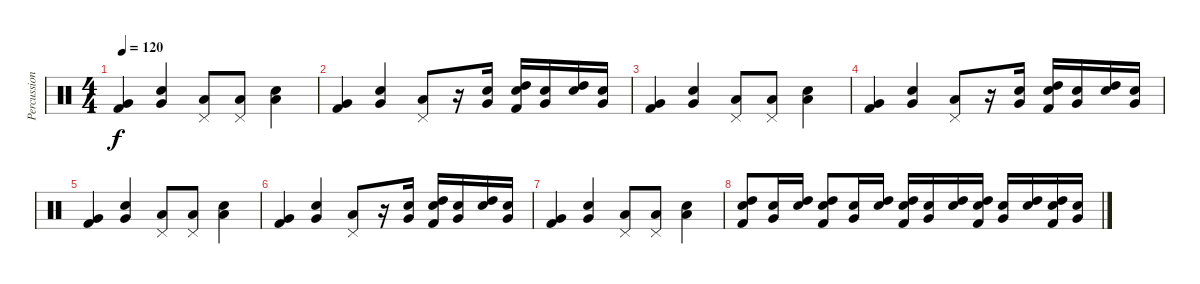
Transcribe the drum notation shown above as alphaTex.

\track ("Percussion" "Percussion") {instrument percussion}
\staff {score}
\articulation defaults
\ts (4 4)
\tempo 120
\clef neutral
\ks c
("Very Low Tom (hit)" "Kick (hit) 2").4{dy f} ("Very Low Tom (hit)" "Snare (hit) 2").4 ("Pedal Hi-Hat (hit)" "Low Tom (hit)").8 ("Pedal Hi-Hat (hit)" "Low Tom (hit)").8 ("Low Tom (hit)" "Snare (hit) 2").4 |
("Very Low Tom (hit)" "Kick (hit) 2").4 ("Very Low Tom (hit)" "Snare (hit) 2").4 ("Pedal Hi-Hat (hit)" "Low Tom (hit)").8 r.16 ("Very Low Tom (hit)" "Snare (hit) 2").16 ("High Tom (hit)" "Snare (hit) 2" "Kick (hit) 2").16 ("Very Low Tom (hit)" "Snare (hit) 2").16 ("High Tom (hit)" "Snare (hit) 2").16 ("Very Low Tom (hit)" "Snare (hit) 2").16 |
("Very Low Tom (hit)" "Kick (hit) 2").4 ("Very Low Tom (hit)" "Snare (hit) 2").4 ("Pedal Hi-Hat (hit)" "Low Tom (hit)").8 ("Pedal Hi-Hat (hit)" "Low Tom (hit)").8 ("Low Tom (hit)" "Snare (hit) 2").4 |
("Very Low Tom (hit)" "Kick (hit) 2").4 ("Very Low Tom (hit)" "Snare (hit) 2").4 ("Pedal Hi-Hat (hit)" "Low Tom (hit)").8 r.16 ("Very Low Tom (hit)" "Snare (hit) 2").16 ("High Tom (hit)" "Snare (hit) 2" "Kick (hit) 2").16 ("Very Low Tom (hit)" "Snare (hit) 2").16 ("High Tom (hit)" "Snare (hit) 2").16 ("Very Low Tom (hit)" "Snare (hit) 2").16 |
("Very Low Tom (hit)" "Kick (hit) 2").4 ("Very Low Tom (hit)" "Snare (hit) 2").4 ("Pedal Hi-Hat (hit)" "Low Tom (hit)").8 ("Pedal Hi-Hat (hit)" "Low Tom (hit)").8 ("Low Tom (hit)" "Snare (hit) 2").4 |
("Very Low Tom (hit)" "Kick (hit) 2").4 ("Very Low Tom (hit)" "Snare (hit) 2").4 ("Pedal Hi-Hat (hit)" "Low Tom (hit)").8 r.16 ("Very Low Tom (hit)" "Snare (hit) 2").16 ("High Tom (hit)" "Snare (hit) 2" "Kick (hit) 2").16 ("Very Low Tom (hit)" "Snare (hit) 2").16 ("High Tom (hit)" "Snare (hit) 2").16 ("Very Low Tom (hit)" "Snare (hit) 2").16 |
("Very Low Tom (hit)" "Kick (hit) 2").4 ("Very Low Tom (hit)" "Snare (hit) 2").4 ("Pedal Hi-Hat (hit)" "Low Tom (hit)").8 ("Pedal Hi-Hat (hit)" "Low Tom (hit)").8 ("Low Tom (hit)" "Snare (hit) 2").4 |
("High Tom (hit)" "Snare (hit) 2" "Kick (hit) 2").8 ("Very Low Tom (hit)" "Snare (hit) 2").16 ("High Tom (hit)" "Snare (hit) 2").16 ("High Tom (hit)" "Snare (hit) 2" "Kick (hit) 2").8 ("Very Low Tom (hit)" "Snare (hit) 2").16 ("High Tom (hit)" "Snare (hit) 2").16 ("High Tom (hit)" "Snare (hit) 2" "Kick (hit) 2").16 ("Very Low Tom (hit)" "Snare (hit) 2").16 ("High Tom (hit)" "Snare (hit) 2").16 ("High Tom (hit)" "Snare (hit) 2" "Kick (hit) 2").16 ("Very Low Tom (hit)" "Snare (hit) 2").16 ("High Tom (hit)" "Snare (hit) 2").16 ("High Tom (hit)" "Snare (hit) 2" "Kick (hit) 2").16 ("Very Low Tom (hit)" "Snare (hit) 2").16
